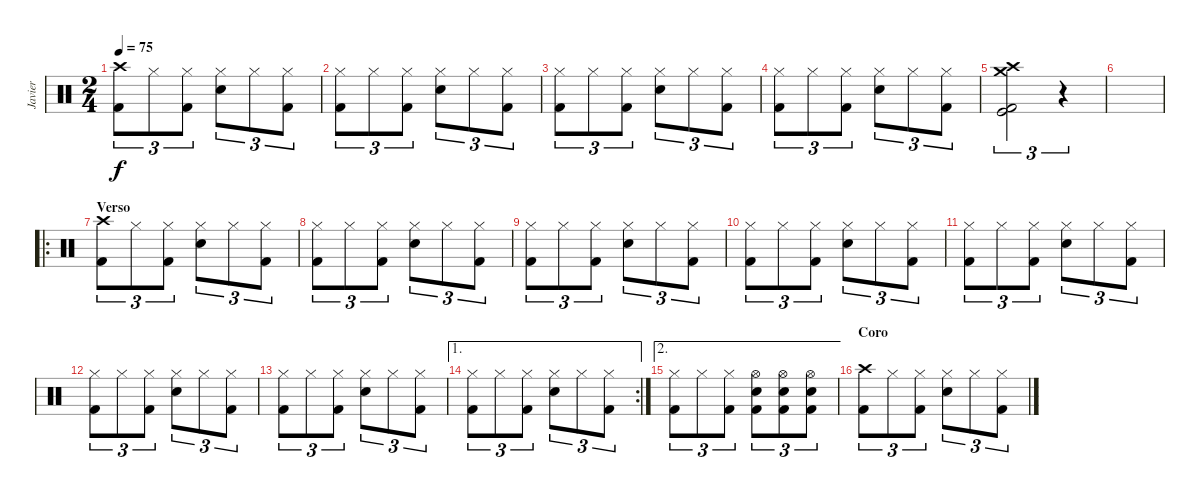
\track ("Javier" "Javier") {instrument percussion}
\staff {score}
\articulation defaults
\ts (2 4)
\tempo 75
\clef neutral
\ks c
("Crash high (hit)" "Kick (hit) 2").8{tu (3 2) dy f} "Hi-Hat (closed)".8{tu (3 2)} ("Hi-Hat (closed)" "Kick (hit) 2").8{tu (3 2)} ("Hi-Hat (closed)" "Snare (hit) 2").8{tu (3 2)} "Hi-Hat (closed)".8{tu (3 2)} ("Hi-Hat (closed)" "Kick (hit) 2").8{tu (3 2)} |
("Hi-Hat (closed)" "Kick (hit) 2").8{tu (3 2)} "Hi-Hat (closed)".8{tu (3 2)} ("Hi-Hat (closed)" "Kick (hit) 2").8{tu (3 2)} ("Hi-Hat (closed)" "Snare (hit) 2").8{tu (3 2)} "Hi-Hat (closed)".8{tu (3 2)} ("Hi-Hat (closed)" "Kick (hit) 2").8{tu (3 2)} |
("Hi-Hat (closed)" "Kick (hit) 2").8{tu (3 2)} "Hi-Hat (closed)".8{tu (3 2)} ("Hi-Hat (closed)" "Kick (hit) 2").8{tu (3 2)} ("Hi-Hat (closed)" "Snare (hit) 2").8{tu (3 2)} "Hi-Hat (closed)".8{tu (3 2)} ("Hi-Hat (closed)" "Kick (hit) 2").8{tu (3 2)} |
("Hi-Hat (closed)" "Kick (hit) 2").8{tu (3 2)} "Hi-Hat (closed)".8{tu (3 2)} ("Hi-Hat (closed)" "Kick (hit) 2").8{tu (3 2)} ("Hi-Hat (closed)" "Snare (hit) 2").8{tu (3 2)} "Hi-Hat (closed)".8{tu (3 2)} ("Hi-Hat (closed)" "Kick (hit) 2").8{tu (3 2)} |
("Crash high (hit)" "Crash medium (hit)" "Kick (hit) 2" "Kick (hit)").2{tu (3 2)} r.4{tu (3 2)} |
|
\ro
\section ("" "Verso")
("Crash high (hit)" "Kick (hit) 2").8{tu (3 2)} "Hi-Hat (closed)".8{tu (3 2)} ("Hi-Hat (closed)" "Kick (hit) 2").8{tu (3 2)} ("Hi-Hat (closed)" "Snare (hit) 2").8{tu (3 2)} "Hi-Hat (closed)".8{tu (3 2)} ("Hi-Hat (closed)" "Kick (hit) 2").8{tu (3 2)} |
("Hi-Hat (closed)" "Kick (hit) 2").8{tu (3 2)} "Hi-Hat (closed)".8{tu (3 2)} ("Hi-Hat (closed)" "Kick (hit) 2").8{tu (3 2)} ("Hi-Hat (closed)" "Snare (hit) 2").8{tu (3 2)} "Hi-Hat (closed)".8{tu (3 2)} ("Hi-Hat (closed)" "Kick (hit) 2").8{tu (3 2)} |
("Hi-Hat (closed)" "Kick (hit) 2").8{tu (3 2)} "Hi-Hat (closed)".8{tu (3 2)} ("Hi-Hat (closed)" "Kick (hit) 2").8{tu (3 2)} ("Hi-Hat (closed)" "Snare (hit) 2").8{tu (3 2)} "Hi-Hat (closed)".8{tu (3 2)} ("Hi-Hat (closed)" "Kick (hit) 2").8{tu (3 2)} |
("Hi-Hat (closed)" "Kick (hit) 2").8{tu (3 2)} "Hi-Hat (closed)".8{tu (3 2)} ("Hi-Hat (closed)" "Kick (hit) 2").8{tu (3 2)} ("Hi-Hat (closed)" "Snare (hit) 2").8{tu (3 2)} "Hi-Hat (closed)".8{tu (3 2)} ("Hi-Hat (closed)" "Kick (hit) 2").8{tu (3 2)} |
("Hi-Hat (closed)" "Kick (hit) 2").8{tu (3 2)} "Hi-Hat (closed)".8{tu (3 2)} ("Hi-Hat (closed)" "Kick (hit) 2").8{tu (3 2)} ("Hi-Hat (closed)" "Snare (hit) 2").8{tu (3 2)} "Hi-Hat (closed)".8{tu (3 2)} ("Hi-Hat (closed)" "Kick (hit) 2").8{tu (3 2)} |
("Hi-Hat (closed)" "Kick (hit) 2").8{tu (3 2)} "Hi-Hat (closed)".8{tu (3 2)} ("Hi-Hat (closed)" "Kick (hit) 2").8{tu (3 2)} ("Hi-Hat (closed)" "Snare (hit) 2").8{tu (3 2)} "Hi-Hat (closed)".8{tu (3 2)} ("Hi-Hat (closed)" "Kick (hit) 2").8{tu (3 2)} |
("Hi-Hat (closed)" "Kick (hit) 2").8{tu (3 2)} "Hi-Hat (closed)".8{tu (3 2)} ("Hi-Hat (closed)" "Kick (hit) 2").8{tu (3 2)} ("Hi-Hat (closed)" "Snare (hit) 2").8{tu (3 2)} "Hi-Hat (closed)".8{tu (3 2)} ("Hi-Hat (closed)" "Kick (hit) 2").8{tu (3 2)} |
\ae 1
\rc 2
("Hi-Hat (closed)" "Kick (hit) 2").8{tu (3 2)} "Hi-Hat (closed)".8{tu (3 2)} ("Hi-Hat (closed)" "Kick (hit) 2").8{tu (3 2)} ("Hi-Hat (closed)" "Snare (hit) 2").8{tu (3 2)} "Hi-Hat (closed)".8{tu (3 2)} ("Hi-Hat (closed)" "Kick (hit) 2").8{tu (3 2)} |
\ae 2
("Hi-Hat (closed)" "Kick (hit) 2").8{tu (3 2)} "Hi-Hat (closed)".8{tu (3 2)} ("Hi-Hat (closed)" "Kick (hit) 2").8{tu (3 2)} ("Hi-Hat (open)" "Snare (hit) 2" "Kick (hit) 2").8{tu (3 2)} ("Hi-Hat (open)" "Snare (hit) 2" "Kick (hit) 2").8{tu (3 2)} ("Hi-Hat (open)" "Snare (hit) 2" "Kick (hit) 2").8{tu (3 2)} |
\section ("" "Coro")
("Crash high (hit)" "Kick (hit) 2").8{tu (3 2)} "Hi-Hat (closed)".8{tu (3 2)} ("Hi-Hat (closed)" "Kick (hit) 2").8{tu (3 2)} ("Hi-Hat (closed)" "Snare (hit) 2").8{tu (3 2)} "Hi-Hat (closed)".8{tu (3 2)} ("Hi-Hat (closed)" "Kick (hit) 2").8{tu (3 2)}
